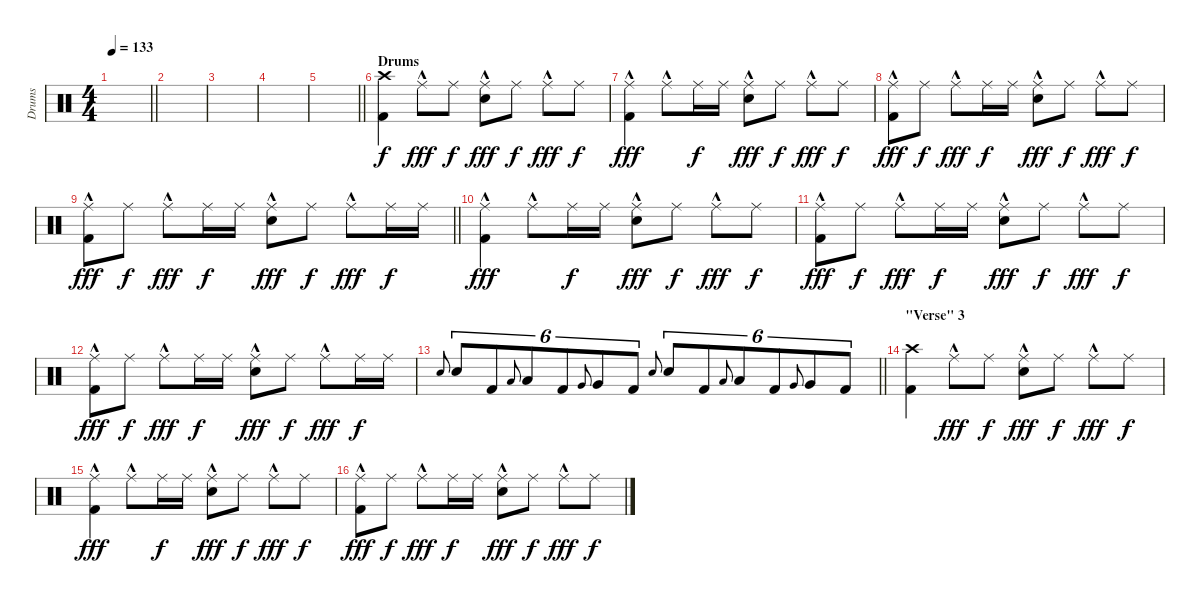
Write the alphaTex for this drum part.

\track ("Drums" "Drums") {instrument percussion}
\staff {score}
\articulation defaults
\ts (4 4)
\tempo 133
\clef neutral
\barLineRight lightlight
\ks c
|
\section ("" "")
|
|
|
\barLineRight lightlight
|
\section ("" "Drums")
("Crash high (hit)" "Kick (hit) 2").4 "Ride (middle)"{hac}.8{dy fff} "Ride (middle)".8{dy f} ("Ride (middle)"{hac} "Snare (hit) 2").8{dy fff} "Ride (middle)".8{dy f} "Ride (middle)"{hac}.8{dy fff} "Ride (middle)".8{dy f} |
("Ride (middle)"{hac} "Kick (hit) 2").4{dy fff} "Ride (middle)"{hac}.8 "Ride (middle)".16{dy f} "Ride (middle)".16 ("Ride (middle)"{hac} "Snare (hit) 2").8{dy fff} "Ride (middle)".8{dy f} "Ride (middle)"{hac}.8{dy fff} "Ride (middle)".8{dy f} |
("Ride (middle)"{hac} "Kick (hit) 2").8{dy fff} "Ride (middle)".8{dy f} "Ride (middle)"{hac}.8{dy fff} "Ride (middle)".16{dy f} "Ride (middle)".16 ("Ride (middle)"{hac} "Snare (hit) 2").8{dy fff} "Ride (middle)".8{dy f} "Ride (middle)"{hac}.8{dy fff} "Ride (middle)".8{dy f} |
\barLineRight lightlight
("Ride (middle)"{hac} "Kick (hit) 2").8{dy fff} "Ride (middle)".8{dy f} "Ride (middle)"{hac}.8{dy fff} "Ride (middle)".16{dy f} "Ride (middle)".16 ("Ride (middle)"{hac} "Snare (hit) 2").8{dy fff} "Ride (middle)".8{dy f} "Ride (middle)"{hac}.8{dy fff} "Ride (middle)".16{dy f} "Ride (middle)".16 |
\section ("" "")
("Ride (middle)"{hac} "Kick (hit) 2").4{dy fff} "Ride (middle)"{hac}.8 "Ride (middle)".16{dy f} "Ride (middle)".16 ("Ride (middle)"{hac} "Snare (hit) 2").8{dy fff} "Ride (middle)".8{dy f} "Ride (middle)"{hac}.8{dy fff} "Ride (middle)".8{dy f} |
("Ride (middle)"{hac} "Kick (hit) 2").8{dy fff} "Ride (middle)".8{dy f} "Ride (middle)"{hac}.8{dy fff} "Ride (middle)".16{dy f} "Ride (middle)".16 ("Ride (middle)"{hac} "Snare (hit) 2").8{dy fff} "Ride (middle)".8{dy f} "Ride (middle)"{hac}.8{dy fff} "Ride (middle)".8{dy f} |
("Ride (middle)"{hac} "Kick (hit) 2").8{dy fff} "Ride (middle)".8{dy f} "Ride (middle)"{hac}.8{dy fff} "Ride (middle)".16{dy f} "Ride (middle)".16 ("Ride (middle)"{hac} "Snare (hit) 2").8{dy fff} "Ride (middle)".8{dy f} "Ride (middle)"{hac}.8{dy fff} "Ride (middle)".16{dy f} "Ride (middle)".16 |
\barLineRight lightlight "Snare (hit) 2".8{gr onbeat} "Snare (hit) 2".8{tu (6 4)} "Kick (hit) 2".8{tu (6 4)} "Low Tom (hit)".8{gr onbeat} "Low Tom (hit)".8{tu (6 4)} "Kick (hit) 2".8{tu (6 4)} "Very Low Tom (hit)".8{gr onbeat} "Very Low Tom (hit)".8{tu (6 4)} "Kick (hit) 2".8{tu (6 4)} "Snare (hit) 2".8{gr onbeat} "Snare (hit) 2".8{tu (6 4)} "Kick (hit) 2".8{tu (6 4)} "Low Tom (hit)".8{gr onbeat} "Low Tom (hit)".8{tu (6 4)} "Kick (hit) 2".8{tu (6 4)} "Very Low Tom (hit)".8{gr onbeat} "Very Low Tom (hit)".8{tu (6 4)} "Kick (hit) 2".8{tu (6 4)}
|
\section ("" "\"Verse\" 3")
("Crash high (hit)" "Kick (hit) 2").4 "Ride (middle)"{hac}.8{dy fff} "Ride (middle)".8{dy f} ("Ride (middle)"{hac} "Snare (hit) 2").8{dy fff} "Ride (middle)".8{dy f} "Ride (middle)"{hac}.8{dy fff} "Ride (middle)".8{dy f} |
("Ride (middle)"{hac} "Kick (hit) 2").4{dy fff} "Ride (middle)"{hac}.8 "Ride (middle)".16{dy f} "Ride (middle)".16 ("Ride (middle)"{hac} "Snare (hit) 2").8{dy fff} "Ride (middle)".8{dy f} "Ride (middle)"{hac}.8{dy fff} "Ride (middle)".8{dy f} |
("Ride (middle)"{hac} "Kick (hit) 2").8{dy fff} "Ride (middle)".8{dy f} "Ride (middle)"{hac}.8{dy fff} "Ride (middle)".16{dy f} "Ride (middle)".16 ("Ride (middle)"{hac} "Snare (hit) 2").8{dy fff} "Ride (middle)".8{dy f} "Ride (middle)"{hac}.8{dy fff} "Ride (middle)".8{dy f}
